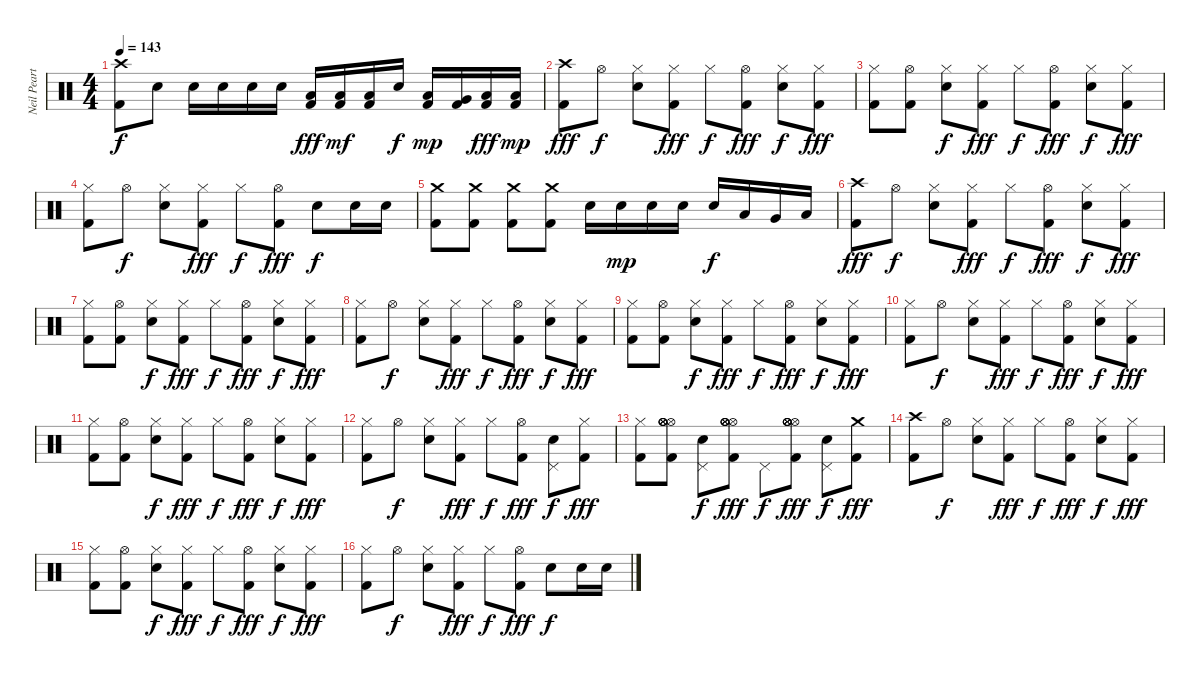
\track ("Neil Peart" "Neil Peart") {instrument percussion}
\staff {score}
\articulation defaults
\ts (4 4)
\tempo 143
\clef neutral
\ks c
("Crash high (hit)" "Kick (hit) 2").8{dy f} "Electric Snare (hit)".8 "Electric Snare (hit)".16 "Electric Snare (hit)".16 "Electric Snare (hit)".16 "Electric Snare (hit)".16 ("Kick (hit) 2" "Low Tom (hit)").16{dy fff} ("Kick (hit) 2" "Low Tom (hit)").16{dy mf} ("Kick (hit) 2" "Low Tom (hit)").16 "Electric Snare (hit)".16{dy f} ("Kick (hit) 2" "Low Tom (hit)").16{dy mp} ("Kick (hit) 2" "Very Low Tom (hit)").16 ("Kick (hit) 2" "Low Floor Tom (hit)").16{dy fff} ("Kick (hit) 2" "Low Floor Tom (hit)").16{dy mp} |
("Kick (hit) 2" "Crash high (hit)").8{dy fff} "Hi-Hat (open)".8{dy f} ("Electric Snare (hit)" "Hi-Hat (closed)").8 ("Kick (hit) 2" "Hi-Hat (closed)").8{dy fff} "Hi-Hat (closed)".8{dy f} ("Kick (hit) 2" "Hi-Hat (open)").8{dy fff} ("Electric Snare (hit)" "Hi-Hat (closed)").8{dy f} ("Kick (hit) 2" "Hi-Hat (closed)").8{dy fff} |
("Kick (hit) 2" "Hi-Hat (closed)").8 ("Kick (hit) 2" "Hi-Hat (open)").8 ("Electric Snare (hit)" "Hi-Hat (closed)").8{dy f} ("Kick (hit) 2" "Hi-Hat (closed)").8{dy fff} "Hi-Hat (closed)".8{dy f} ("Kick (hit) 2" "Hi-Hat (open)").8{dy fff} ("Electric Snare (hit)" "Hi-Hat (closed)").8{dy f} ("Kick (hit) 2" "Hi-Hat (closed)").8{dy fff} |
("Kick (hit) 2" "Hi-Hat (closed)").8 "Hi-Hat (open)".8{dy f} ("Electric Snare (hit)" "Hi-Hat (closed)").8 ("Kick (hit) 2" "Hi-Hat (closed)").8{dy fff} "Hi-Hat (closed)".8{dy f} ("Kick (hit) 2" "Hi-Hat (open)").8{dy fff} "Electric Snare (hit)".8{dy f} "Electric Snare (hit)".16 "Electric Snare (hit)".16 |
("Crash medium (hit)" "Kick (hit) 2").8 ("Crash medium (hit)" "Kick (hit) 2").8 ("Crash medium (hit)" "Kick (hit) 2").8 ("Crash medium (hit)" "Kick (hit) 2").8 "Electric Snare (hit)".16 "Electric Snare (hit)".16{dy mp} "Electric Snare (hit)".16 "Electric Snare (hit)".16 "Electric Snare (hit)".16{dy f} "Low Tom (hit)".16 "Very Low Tom (hit)".16 "Low Floor Tom (hit)".16 |
("Kick (hit) 2" "Crash high (hit)").8{dy fff} "Hi-Hat (open)".8{dy f} ("Electric Snare (hit)" "Hi-Hat (closed)").8 ("Kick (hit) 2" "Hi-Hat (closed)").8{dy fff} "Hi-Hat (closed)".8{dy f} ("Kick (hit) 2" "Hi-Hat (open)").8{dy fff} ("Electric Snare (hit)" "Hi-Hat (closed)").8{dy f} ("Kick (hit) 2" "Hi-Hat (closed)").8{dy fff} |
("Kick (hit) 2" "Hi-Hat (closed)").8 ("Kick (hit) 2" "Hi-Hat (open)").8 ("Electric Snare (hit)" "Hi-Hat (closed)").8{dy f} ("Kick (hit) 2" "Hi-Hat (closed)").8{dy fff} "Hi-Hat (closed)".8{dy f} ("Kick (hit) 2" "Hi-Hat (open)").8{dy fff} ("Electric Snare (hit)" "Hi-Hat (closed)").8{dy f} ("Kick (hit) 2" "Hi-Hat (closed)").8{dy fff} |
("Kick (hit) 2" "Hi-Hat (closed)").8 "Hi-Hat (open)".8{dy f} ("Electric Snare (hit)" "Hi-Hat (closed)").8 ("Kick (hit) 2" "Hi-Hat (closed)").8{dy fff} "Hi-Hat (closed)".8{dy f} ("Kick (hit) 2" "Hi-Hat (open)").8{dy fff} ("Electric Snare (hit)" "Hi-Hat (closed)").8{dy f} ("Kick (hit) 2" "Hi-Hat (closed)").8{dy fff} |
("Kick (hit) 2" "Hi-Hat (closed)").8 ("Kick (hit) 2" "Hi-Hat (open)").8 ("Electric Snare (hit)" "Hi-Hat (closed)").8{dy f} ("Kick (hit) 2" "Hi-Hat (closed)").8{dy fff} "Hi-Hat (closed)".8{dy f} ("Kick (hit) 2" "Hi-Hat (open)").8{dy fff} ("Electric Snare (hit)" "Hi-Hat (closed)").8{dy f} ("Kick (hit) 2" "Hi-Hat (closed)").8{dy fff} |
("Kick (hit) 2" "Hi-Hat (closed)").8 "Hi-Hat (open)".8{dy f} ("Electric Snare (hit)" "Hi-Hat (closed)").8 ("Kick (hit) 2" "Hi-Hat (closed)").8{dy fff} "Hi-Hat (closed)".8{dy f} ("Kick (hit) 2" "Hi-Hat (open)").8{dy fff} ("Electric Snare (hit)" "Hi-Hat (closed)").8{dy f} ("Kick (hit) 2" "Hi-Hat (closed)").8{dy fff} |
("Kick (hit) 2" "Hi-Hat (closed)").8 ("Kick (hit) 2" "Hi-Hat (open)").8 ("Electric Snare (hit)" "Hi-Hat (closed)").8{dy f} ("Kick (hit) 2" "Hi-Hat (closed)").8{dy fff} "Hi-Hat (closed)".8{dy f} ("Kick (hit) 2" "Hi-Hat (open)").8{dy fff} ("Electric Snare (hit)" "Hi-Hat (closed)").8{dy f} ("Kick (hit) 2" "Hi-Hat (closed)").8{dy fff} |
("Kick (hit) 2" "Hi-Hat (closed)").8 "Hi-Hat (open)".8{dy f} ("Electric Snare (hit)" "Hi-Hat (closed)").8 ("Kick (hit) 2" "Hi-Hat (closed)").8{dy fff} "Hi-Hat (closed)".8{dy f} ("Kick (hit) 2" "Hi-Hat (open)").8{dy fff} ("Electric Snare (hit)" "Pedal Hi-Hat (hit)").8{dy f} ("Kick (hit) 2" "Hi-Hat (closed)").8{dy fff} |
("Kick (hit) 2" "Hi-Hat (closed)").8 ("Kick (hit) 2" "Hi-Hat (open)" "Hi-Hat (open)" "Hi-Hat (open)" "Hi-Hat (open)" "Hi-Hat (open)").8 ("Electric Snare (hit)" "Pedal Hi-Hat (hit)").8{dy f} ("Kick (hit) 2" "Hi-Hat (open)" "Hi-Hat (open)" "Hi-Hat (open)" "Hi-Hat (open)" "Hi-Hat (open)").8{dy fff} "Pedal Hi-Hat (hit)".8{dy f} ("Kick (hit) 2" "Hi-Hat (open)" "Hi-Hat (open)" "Hi-Hat (open)" "Hi-Hat (open)" "Hi-Hat (open)").8{dy fff} ("Electric Snare (hit)" "Pedal Hi-Hat (hit)").8{dy f} ("Kick (hit) 2" "Crash medium (hit)").8{dy fff} |
("Kick (hit) 2" "Crash high (hit)").8 "Hi-Hat (open)".8{dy f} ("Electric Snare (hit)" "Hi-Hat (closed)").8 ("Kick (hit) 2" "Hi-Hat (closed)").8{dy fff} "Hi-Hat (closed)".8{dy f} ("Kick (hit) 2" "Hi-Hat (open)").8{dy fff} ("Electric Snare (hit)" "Hi-Hat (closed)").8{dy f} ("Kick (hit) 2" "Hi-Hat (closed)").8{dy fff} |
("Kick (hit) 2" "Hi-Hat (closed)").8 ("Kick (hit) 2" "Hi-Hat (open)").8 ("Electric Snare (hit)" "Hi-Hat (closed)").8{dy f} ("Kick (hit) 2" "Hi-Hat (closed)").8{dy fff} "Hi-Hat (closed)".8{dy f} ("Kick (hit) 2" "Hi-Hat (open)").8{dy fff} ("Electric Snare (hit)" "Hi-Hat (closed)").8{dy f} ("Kick (hit) 2" "Hi-Hat (closed)").8{dy fff} |
("Kick (hit) 2" "Hi-Hat (closed)").8 "Hi-Hat (open)".8{dy f} ("Electric Snare (hit)" "Hi-Hat (closed)").8 ("Kick (hit) 2" "Hi-Hat (closed)").8{dy fff} "Hi-Hat (closed)".8{dy f} ("Kick (hit) 2" "Hi-Hat (open)").8{dy fff} "Electric Snare (hit)".8{dy f} "Electric Snare (hit)".16 "Electric Snare (hit)".16
